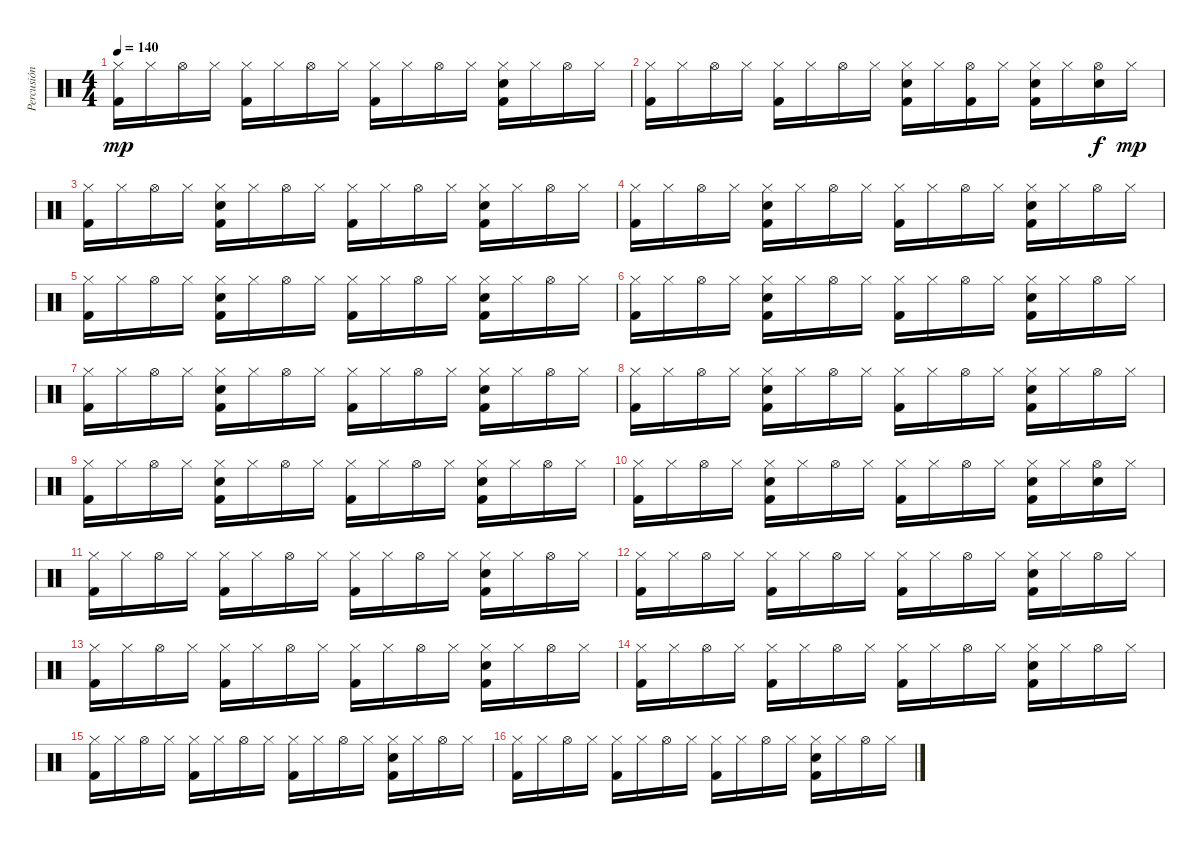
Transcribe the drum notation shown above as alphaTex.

\track ("Percusión" "Percusión") {instrument percussion}
\staff {score}
\articulation defaults
\ts (4 4)
\tempo 140
\clef neutral
\ks c
("Hi-Hat (closed)" "Kick (hit) 2").16{dy mp} "Hi-Hat (closed)".16 "Hi-Hat (open)".16 "Hi-Hat (closed)".16 ("Hi-Hat (closed)" "Kick (hit) 2").16 "Hi-Hat (closed)".16 "Hi-Hat (open)".16 "Hi-Hat (closed)".16 ("Hi-Hat (closed)" "Kick (hit) 2").16 "Hi-Hat (closed)".16 "Hi-Hat (open)".16 "Hi-Hat (closed)".16 ("Hi-Hat (closed)" "Electric Snare (hit)" "Kick (hit) 2").16 "Hi-Hat (closed)".16 "Hi-Hat (open)".16 "Hi-Hat (closed)".16 |
("Hi-Hat (closed)" "Kick (hit) 2").16 "Hi-Hat (closed)".16 "Hi-Hat (open)".16 "Hi-Hat (closed)".16 ("Hi-Hat (closed)" "Kick (hit) 2").16 "Hi-Hat (closed)".16 "Hi-Hat (open)".16 "Hi-Hat (closed)".16 ("Hi-Hat (closed)" "Electric Snare (hit)" "Kick (hit) 2").16 "Hi-Hat (closed)".16 ("Hi-Hat (open)" "Kick (hit) 2").16 "Hi-Hat (closed)".16 ("Hi-Hat (closed)" "Electric Snare (hit)" "Kick (hit) 2").16 "Hi-Hat (closed)".16 ("Hi-Hat (open)" "Electric Snare (hit)").16{dy f} "Hi-Hat (closed)".16{dy mp} |
("Hi-Hat (closed)" "Kick (hit) 2").16 "Hi-Hat (closed)".16 "Hi-Hat (open)".16 "Hi-Hat (closed)".16 ("Hi-Hat (closed)" "Electric Snare (hit)" "Kick (hit) 2").16 "Hi-Hat (closed)".16 "Hi-Hat (open)".16 "Hi-Hat (closed)".16 ("Hi-Hat (closed)" "Kick (hit) 2").16 "Hi-Hat (closed)".16 "Hi-Hat (open)".16 "Hi-Hat (closed)".16 ("Hi-Hat (closed)" "Electric Snare (hit)" "Kick (hit) 2").16 "Hi-Hat (closed)".16 "Hi-Hat (open)".16 "Hi-Hat (closed)".16 |
("Hi-Hat (closed)" "Kick (hit) 2").16 "Hi-Hat (closed)".16 "Hi-Hat (open)".16 "Hi-Hat (closed)".16 ("Hi-Hat (closed)" "Electric Snare (hit)" "Kick (hit) 2").16 "Hi-Hat (closed)".16 "Hi-Hat (open)".16 "Hi-Hat (closed)".16 ("Hi-Hat (closed)" "Kick (hit) 2").16 "Hi-Hat (closed)".16 "Hi-Hat (open)".16 "Hi-Hat (closed)".16 ("Hi-Hat (closed)" "Electric Snare (hit)" "Kick (hit) 2").16 "Hi-Hat (closed)".16 "Hi-Hat (open)".16 "Hi-Hat (closed)".16 |
("Hi-Hat (closed)" "Kick (hit) 2").16 "Hi-Hat (closed)".16 "Hi-Hat (open)".16 "Hi-Hat (closed)".16 ("Hi-Hat (closed)" "Electric Snare (hit)" "Kick (hit) 2").16 "Hi-Hat (closed)".16 "Hi-Hat (open)".16 "Hi-Hat (closed)".16 ("Hi-Hat (closed)" "Kick (hit) 2").16 "Hi-Hat (closed)".16 "Hi-Hat (open)".16 "Hi-Hat (closed)".16 ("Hi-Hat (closed)" "Electric Snare (hit)" "Kick (hit) 2").16 "Hi-Hat (closed)".16 "Hi-Hat (open)".16 "Hi-Hat (closed)".16 |
("Hi-Hat (closed)" "Kick (hit) 2").16 "Hi-Hat (closed)".16 "Hi-Hat (open)".16 "Hi-Hat (closed)".16 ("Hi-Hat (closed)" "Electric Snare (hit)" "Kick (hit) 2").16 "Hi-Hat (closed)".16 "Hi-Hat (open)".16 "Hi-Hat (closed)".16 ("Hi-Hat (closed)" "Kick (hit) 2").16 "Hi-Hat (closed)".16 "Hi-Hat (open)".16 "Hi-Hat (closed)".16 ("Hi-Hat (closed)" "Electric Snare (hit)" "Kick (hit) 2").16 "Hi-Hat (closed)".16 "Hi-Hat (open)".16 "Hi-Hat (closed)".16 |
("Hi-Hat (closed)" "Kick (hit) 2").16 "Hi-Hat (closed)".16 "Hi-Hat (open)".16 "Hi-Hat (closed)".16 ("Hi-Hat (closed)" "Electric Snare (hit)" "Kick (hit) 2").16 "Hi-Hat (closed)".16 "Hi-Hat (open)".16 "Hi-Hat (closed)".16 ("Hi-Hat (closed)" "Kick (hit) 2").16 "Hi-Hat (closed)".16 "Hi-Hat (open)".16 "Hi-Hat (closed)".16 ("Hi-Hat (closed)" "Electric Snare (hit)" "Kick (hit) 2").16 "Hi-Hat (closed)".16 "Hi-Hat (open)".16 "Hi-Hat (closed)".16 |
("Hi-Hat (closed)" "Kick (hit) 2").16 "Hi-Hat (closed)".16 "Hi-Hat (open)".16 "Hi-Hat (closed)".16 ("Hi-Hat (closed)" "Electric Snare (hit)" "Kick (hit) 2").16 "Hi-Hat (closed)".16 "Hi-Hat (open)".16 "Hi-Hat (closed)".16 ("Hi-Hat (closed)" "Kick (hit) 2").16 "Hi-Hat (closed)".16 "Hi-Hat (open)".16 "Hi-Hat (closed)".16 ("Hi-Hat (closed)" "Electric Snare (hit)" "Kick (hit) 2").16 "Hi-Hat (closed)".16 "Hi-Hat (open)".16 "Hi-Hat (closed)".16 |
("Hi-Hat (closed)" "Kick (hit) 2").16 "Hi-Hat (closed)".16 "Hi-Hat (open)".16 "Hi-Hat (closed)".16 ("Hi-Hat (closed)" "Electric Snare (hit)" "Kick (hit) 2").16 "Hi-Hat (closed)".16 "Hi-Hat (open)".16 "Hi-Hat (closed)".16 ("Hi-Hat (closed)" "Kick (hit) 2").16 "Hi-Hat (closed)".16 "Hi-Hat (open)".16 "Hi-Hat (closed)".16 ("Hi-Hat (closed)" "Electric Snare (hit)" "Kick (hit) 2").16 "Hi-Hat (closed)".16 "Hi-Hat (open)".16 "Hi-Hat (closed)".16 |
("Hi-Hat (closed)" "Kick (hit) 2").16 "Hi-Hat (closed)".16 "Hi-Hat (open)".16 "Hi-Hat (closed)".16 ("Hi-Hat (closed)" "Electric Snare (hit)" "Kick (hit) 2").16 "Hi-Hat (closed)".16 "Hi-Hat (open)".16 "Hi-Hat (closed)".16 ("Hi-Hat (closed)" "Kick (hit) 2").16 "Hi-Hat (closed)".16 "Hi-Hat (open)".16 "Hi-Hat (closed)".16 ("Hi-Hat (closed)" "Electric Snare (hit)" "Kick (hit) 2").16 "Hi-Hat (closed)".16 ("Hi-Hat (open)" "Electric Snare (hit)").16 "Hi-Hat (closed)".16 |
("Hi-Hat (closed)" "Kick (hit) 2").16 "Hi-Hat (closed)".16 "Hi-Hat (open)".16 "Hi-Hat (closed)".16 ("Hi-Hat (closed)" "Kick (hit) 2").16 "Hi-Hat (closed)".16 "Hi-Hat (open)".16 "Hi-Hat (closed)".16 ("Hi-Hat (closed)" "Kick (hit) 2").16 "Hi-Hat (closed)".16 "Hi-Hat (open)".16 "Hi-Hat (closed)".16 ("Hi-Hat (closed)" "Electric Snare (hit)" "Kick (hit) 2").16 "Hi-Hat (closed)".16 "Hi-Hat (open)".16 "Hi-Hat (closed)".16 |
("Hi-Hat (closed)" "Kick (hit) 2").16 "Hi-Hat (closed)".16 "Hi-Hat (open)".16 "Hi-Hat (closed)".16 ("Hi-Hat (closed)" "Kick (hit) 2").16 "Hi-Hat (closed)".16 "Hi-Hat (open)".16 "Hi-Hat (closed)".16 ("Hi-Hat (closed)" "Kick (hit) 2").16 "Hi-Hat (closed)".16 "Hi-Hat (open)".16 "Hi-Hat (closed)".16 ("Hi-Hat (closed)" "Electric Snare (hit)" "Kick (hit) 2").16 "Hi-Hat (closed)".16 "Hi-Hat (open)".16 "Hi-Hat (closed)".16 |
("Hi-Hat (closed)" "Kick (hit) 2").16 "Hi-Hat (closed)".16 "Hi-Hat (open)".16 "Hi-Hat (closed)".16 ("Hi-Hat (closed)" "Kick (hit) 2").16 "Hi-Hat (closed)".16 "Hi-Hat (open)".16 "Hi-Hat (closed)".16 ("Hi-Hat (closed)" "Kick (hit) 2").16 "Hi-Hat (closed)".16 "Hi-Hat (open)".16 "Hi-Hat (closed)".16 ("Hi-Hat (closed)" "Electric Snare (hit)" "Kick (hit) 2").16 "Hi-Hat (closed)".16 "Hi-Hat (open)".16 "Hi-Hat (closed)".16 |
("Hi-Hat (closed)" "Kick (hit) 2").16 "Hi-Hat (closed)".16 "Hi-Hat (open)".16 "Hi-Hat (closed)".16 ("Hi-Hat (closed)" "Kick (hit) 2").16 "Hi-Hat (closed)".16 "Hi-Hat (open)".16 "Hi-Hat (closed)".16 ("Hi-Hat (closed)" "Kick (hit) 2").16 "Hi-Hat (closed)".16 "Hi-Hat (open)".16 "Hi-Hat (closed)".16 ("Hi-Hat (closed)" "Electric Snare (hit)" "Kick (hit) 2").16 "Hi-Hat (closed)".16 "Hi-Hat (open)".16 "Hi-Hat (closed)".16 |
("Hi-Hat (closed)" "Kick (hit) 2").16 "Hi-Hat (closed)".16 "Hi-Hat (open)".16 "Hi-Hat (closed)".16 ("Hi-Hat (closed)" "Kick (hit) 2").16 "Hi-Hat (closed)".16 "Hi-Hat (open)".16 "Hi-Hat (closed)".16 ("Hi-Hat (closed)" "Kick (hit) 2").16 "Hi-Hat (closed)".16 "Hi-Hat (open)".16 "Hi-Hat (closed)".16 ("Hi-Hat (closed)" "Electric Snare (hit)" "Kick (hit) 2").16 "Hi-Hat (closed)".16 "Hi-Hat (open)".16 "Hi-Hat (closed)".16 |
("Hi-Hat (closed)" "Kick (hit) 2").16 "Hi-Hat (closed)".16 "Hi-Hat (open)".16 "Hi-Hat (closed)".16 ("Hi-Hat (closed)" "Kick (hit) 2").16 "Hi-Hat (closed)".16 "Hi-Hat (open)".16 "Hi-Hat (closed)".16 ("Hi-Hat (closed)" "Kick (hit) 2").16 "Hi-Hat (closed)".16 "Hi-Hat (open)".16 "Hi-Hat (closed)".16 ("Hi-Hat (closed)" "Electric Snare (hit)" "Kick (hit) 2").16 "Hi-Hat (closed)".16 "Hi-Hat (open)".16 "Hi-Hat (closed)".16
